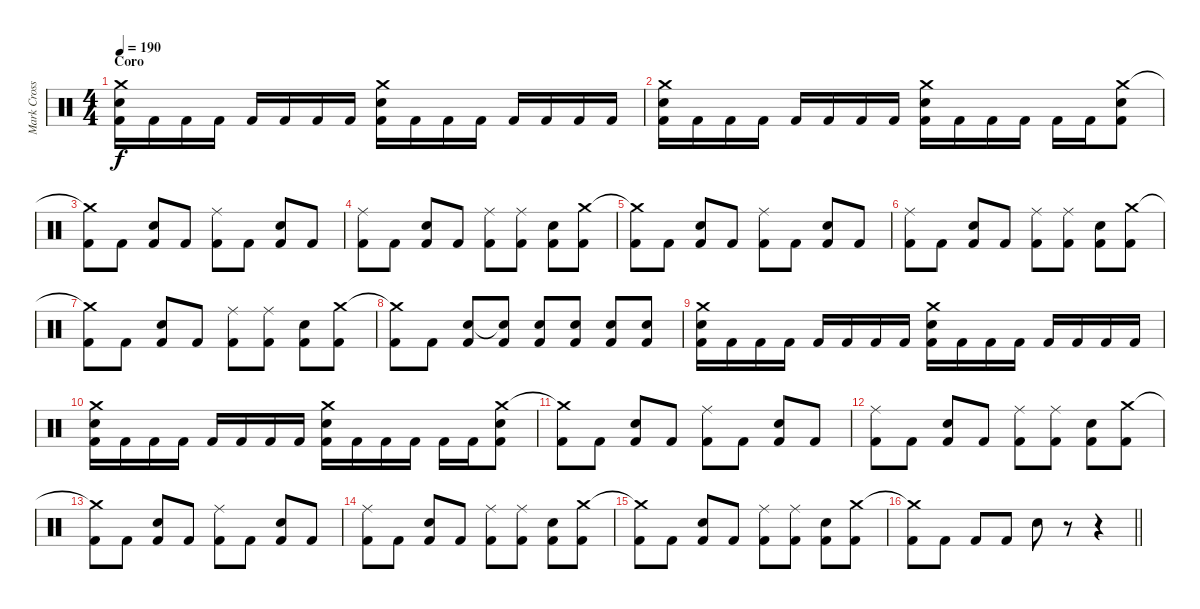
\track ("Mark Cross" "Mark Cross") {instrument percussion}
\staff {score}
\articulation defaults
\ts (4 4)
\section ("" "Coro")
\tempo 190
\clef neutral
\ks c
("Crash medium (hit)" "Electric Snare (hit)" "Kick (hit) 2").16{dy f} "Kick (hit) 2".16 "Kick (hit) 2".16 "Kick (hit) 2".16 "Kick (hit) 2".16 "Kick (hit) 2".16 "Kick (hit) 2".16 "Kick (hit) 2".16 ("Crash medium (hit)" "Electric Snare (hit)" "Kick (hit) 2").16 "Kick (hit) 2".16 "Kick (hit) 2".16 "Kick (hit) 2".16 "Kick (hit) 2".16 "Kick (hit) 2".16 "Kick (hit) 2".16 "Kick (hit) 2".16 |
("Crash medium (hit)" "Electric Snare (hit)" "Kick (hit) 2").16 "Kick (hit) 2".16 "Kick (hit) 2".16 "Kick (hit) 2".16 "Kick (hit) 2".16 "Kick (hit) 2".16 "Kick (hit) 2".16 "Kick (hit) 2".16 ("Crash medium (hit)" "Electric Snare (hit)" "Kick (hit) 2").16 "Kick (hit) 2".16 "Kick (hit) 2".16 "Kick (hit) 2".16 "Kick (hit) 2".16 "Kick (hit) 2".16 ("Crash medium (hit)" "Electric Snare (hit)" "Kick (hit) 2").8 |
("Crash medium (hit)"{t} "Kick (hit) 2").8 "Kick (hit) 2".8 ("Electric Snare (hit)" "Kick (hit) 2").8 "Kick (hit) 2".8 ("Ride (middle)" "Kick (hit) 2").8 "Kick (hit) 2".8 ("Electric Snare (hit)" "Kick (hit) 2").8 "Kick (hit) 2".8 |
("Ride (middle)" "Kick (hit) 2").8 "Kick (hit) 2".8 ("Electric Snare (hit)" "Kick (hit) 2").8 "Kick (hit) 2".8 ("Ride (middle)" "Kick (hit) 2").8 ("Ride (middle)" "Kick (hit) 2").8 ("Electric Snare (hit)" "Kick (hit) 2").8 ("Crash medium (hit)" "Kick (hit) 2").8 |
("Crash medium (hit)"{t} "Kick (hit) 2").8 "Kick (hit) 2".8 ("Electric Snare (hit)" "Kick (hit) 2").8 "Kick (hit) 2".8 ("Ride (middle)" "Kick (hit) 2").8 "Kick (hit) 2".8 ("Electric Snare (hit)" "Kick (hit) 2").8 "Kick (hit) 2".8 |
("Ride (middle)" "Kick (hit) 2").8 "Kick (hit) 2".8 ("Electric Snare (hit)" "Kick (hit) 2").8 "Kick (hit) 2".8 ("Ride (middle)" "Kick (hit) 2").8 ("Ride (middle)" "Kick (hit) 2").8 ("Electric Snare (hit)" "Kick (hit) 2").8 ("Crash medium (hit)" "Kick (hit) 2").8 |
("Crash medium (hit)"{t} "Kick (hit) 2").8 "Kick (hit) 2".8 ("Electric Snare (hit)" "Kick (hit) 2").8 "Kick (hit) 2".8 ("Ride (middle)" "Kick (hit) 2").8 ("Ride (middle)" "Kick (hit) 2").8 ("Electric Snare (hit)" "Kick (hit) 2").8 ("Crash medium (hit)" "Kick (hit) 2").8 |
("Crash medium (hit)"{t} "Kick (hit) 2").8 "Kick (hit) 2".8 ("Electric Snare (hit)" "Kick (hit) 2").8 ("Electric Snare (hit)"{t} "Kick (hit) 2").8 ("Electric Snare (hit)" "Kick (hit) 2").8 ("Electric Snare (hit)" "Kick (hit) 2").8 ("Electric Snare (hit)" "Kick (hit) 2").8 ("Electric Snare (hit)" "Kick (hit) 2").8 |
("Crash medium (hit)" "Electric Snare (hit)" "Kick (hit) 2").16 "Kick (hit) 2".16 "Kick (hit) 2".16 "Kick (hit) 2".16 "Kick (hit) 2".16 "Kick (hit) 2".16 "Kick (hit) 2".16 "Kick (hit) 2".16 ("Crash medium (hit)" "Electric Snare (hit)" "Kick (hit) 2").16 "Kick (hit) 2".16 "Kick (hit) 2".16 "Kick (hit) 2".16 "Kick (hit) 2".16 "Kick (hit) 2".16 "Kick (hit) 2".16 "Kick (hit) 2".16 |
("Crash medium (hit)" "Electric Snare (hit)" "Kick (hit) 2").16 "Kick (hit) 2".16 "Kick (hit) 2".16 "Kick (hit) 2".16 "Kick (hit) 2".16 "Kick (hit) 2".16 "Kick (hit) 2".16 "Kick (hit) 2".16 ("Crash medium (hit)" "Electric Snare (hit)" "Kick (hit) 2").16 "Kick (hit) 2".16 "Kick (hit) 2".16 "Kick (hit) 2".16 "Kick (hit) 2".16 "Kick (hit) 2".16 ("Crash medium (hit)" "Electric Snare (hit)" "Kick (hit) 2").8 |
("Crash medium (hit)"{t} "Kick (hit) 2").8 "Kick (hit) 2".8 ("Electric Snare (hit)" "Kick (hit) 2").8 "Kick (hit) 2".8 ("Ride (middle)" "Kick (hit) 2").8 "Kick (hit) 2".8 ("Electric Snare (hit)" "Kick (hit) 2").8 "Kick (hit) 2".8 |
("Ride (middle)" "Kick (hit) 2").8 "Kick (hit) 2".8 ("Electric Snare (hit)" "Kick (hit) 2").8 "Kick (hit) 2".8 ("Ride (middle)" "Kick (hit) 2").8 ("Ride (middle)" "Kick (hit) 2").8 ("Electric Snare (hit)" "Kick (hit) 2").8 ("Crash medium (hit)" "Kick (hit) 2").8 |
("Crash medium (hit)"{t} "Kick (hit) 2").8 "Kick (hit) 2".8 ("Electric Snare (hit)" "Kick (hit) 2").8 "Kick (hit) 2".8 ("Ride (middle)" "Kick (hit) 2").8 "Kick (hit) 2".8 ("Electric Snare (hit)" "Kick (hit) 2").8 "Kick (hit) 2".8 |
("Ride (middle)" "Kick (hit) 2").8 "Kick (hit) 2".8 ("Electric Snare (hit)" "Kick (hit) 2").8 "Kick (hit) 2".8 ("Ride (middle)" "Kick (hit) 2").8 ("Ride (middle)" "Kick (hit) 2").8 ("Electric Snare (hit)" "Kick (hit) 2").8 ("Crash medium (hit)" "Kick (hit) 2").8 |
("Crash medium (hit)"{t} "Kick (hit) 2").8 "Kick (hit) 2".8 ("Electric Snare (hit)" "Kick (hit) 2").8 "Kick (hit) 2".8 ("Ride (middle)" "Kick (hit) 2").8 ("Ride (middle)" "Kick (hit) 2").8 ("Electric Snare (hit)" "Kick (hit) 2").8 ("Crash medium (hit)" "Kick (hit) 2").8 |
\barLineRight lightlight
("Crash medium (hit)"{t} "Kick (hit) 2").8 "Kick (hit) 2".8 "Kick (hit) 2".8 "Kick (hit) 2".8 "Electric Snare (hit)".8 r.8 r.4
